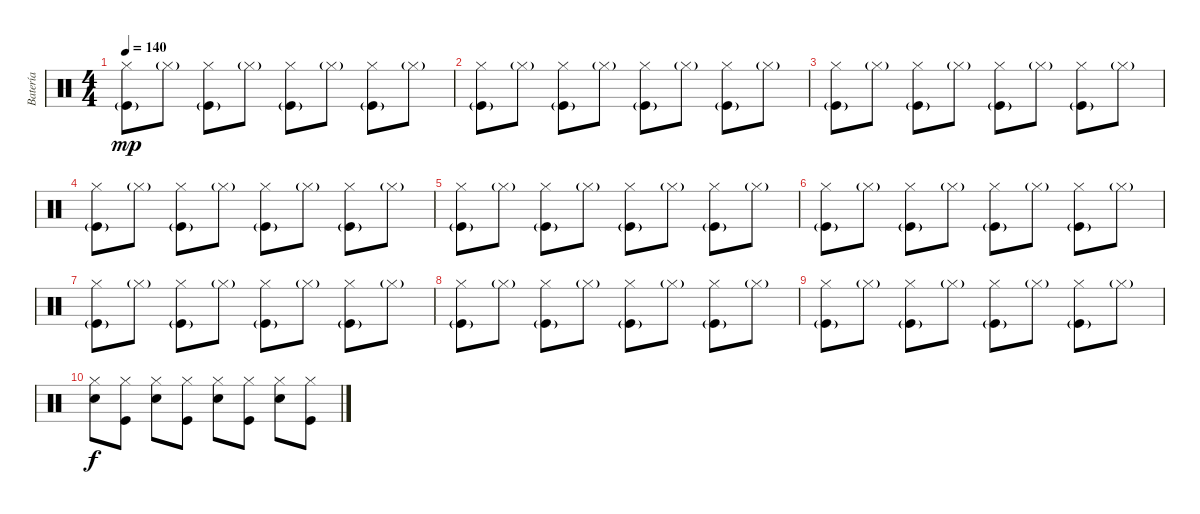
\track ("Batería" "Batería") {instrument percussion}
\staff {score}
\articulation defaults
\ts (4 4)
\tempo 140
\clef neutral
\ks c
("Hi-Hat (closed)" "Kick (hit)"{g}).8{dy mp} "Hi-Hat (closed)"{g}.8 ("Hi-Hat (closed)" "Kick (hit)"{g}).8 "Hi-Hat (closed)"{g}.8 ("Hi-Hat (closed)" "Kick (hit)"{g}).8 "Hi-Hat (closed)"{g}.8 ("Hi-Hat (closed)" "Kick (hit)"{g}).8 "Hi-Hat (closed)"{g}.8 |
("Hi-Hat (closed)" "Kick (hit)"{g}).8 "Hi-Hat (closed)"{g}.8 ("Hi-Hat (closed)" "Kick (hit)"{g}).8 "Hi-Hat (closed)"{g}.8 ("Hi-Hat (closed)" "Kick (hit)"{g}).8 "Hi-Hat (closed)"{g}.8 ("Hi-Hat (closed)" "Kick (hit)"{g}).8 "Hi-Hat (closed)"{g}.8 |
("Hi-Hat (closed)" "Kick (hit)"{g}).8 "Hi-Hat (closed)"{g}.8 ("Hi-Hat (closed)" "Kick (hit)"{g}).8 "Hi-Hat (closed)"{g}.8 ("Hi-Hat (closed)" "Kick (hit)"{g}).8 "Hi-Hat (closed)"{g}.8 ("Hi-Hat (closed)" "Kick (hit)"{g}).8 "Hi-Hat (closed)"{g}.8 |
("Hi-Hat (closed)" "Kick (hit)"{g}).8 "Hi-Hat (closed)"{g}.8 ("Hi-Hat (closed)" "Kick (hit)"{g}).8 "Hi-Hat (closed)"{g}.8 ("Hi-Hat (closed)" "Kick (hit)"{g}).8 "Hi-Hat (closed)"{g}.8 ("Hi-Hat (closed)" "Kick (hit)"{g}).8 "Hi-Hat (closed)"{g}.8 |
("Hi-Hat (closed)" "Kick (hit)"{g}).8 "Hi-Hat (closed)"{g}.8 ("Hi-Hat (closed)" "Kick (hit)"{g}).8 "Hi-Hat (closed)"{g}.8 ("Hi-Hat (closed)" "Kick (hit)"{g}).8 "Hi-Hat (closed)"{g}.8 ("Hi-Hat (closed)" "Kick (hit)"{g}).8 "Hi-Hat (closed)"{g}.8 |
("Hi-Hat (closed)" "Kick (hit)"{g}).8 "Hi-Hat (closed)"{g}.8 ("Hi-Hat (closed)" "Kick (hit)"{g}).8 "Hi-Hat (closed)"{g}.8 ("Hi-Hat (closed)" "Kick (hit)"{g}).8 "Hi-Hat (closed)"{g}.8 ("Hi-Hat (closed)" "Kick (hit)"{g}).8 "Hi-Hat (closed)"{g}.8 |
("Hi-Hat (closed)" "Kick (hit)"{g}).8 "Hi-Hat (closed)"{g}.8 ("Hi-Hat (closed)" "Kick (hit)"{g}).8 "Hi-Hat (closed)"{g}.8 ("Hi-Hat (closed)" "Kick (hit)"{g}).8 "Hi-Hat (closed)"{g}.8 ("Hi-Hat (closed)" "Kick (hit)"{g}).8 "Hi-Hat (closed)"{g}.8 |
("Hi-Hat (closed)" "Kick (hit)"{g}).8 "Hi-Hat (closed)"{g}.8 ("Hi-Hat (closed)" "Kick (hit)"{g}).8 "Hi-Hat (closed)"{g}.8 ("Hi-Hat (closed)" "Kick (hit)"{g}).8 "Hi-Hat (closed)"{g}.8 ("Hi-Hat (closed)" "Kick (hit)"{g}).8 "Hi-Hat (closed)"{g}.8 |
("Hi-Hat (closed)" "Kick (hit)"{g}).8 "Hi-Hat (closed)"{g}.8 ("Hi-Hat (closed)" "Kick (hit)"{g}).8 "Hi-Hat (closed)"{g}.8 ("Hi-Hat (closed)" "Kick (hit)"{g}).8 "Hi-Hat (closed)"{g}.8 ("Hi-Hat (closed)" "Kick (hit)"{g}).8 "Hi-Hat (closed)"{g}.8 |
("Hi-Hat (closed)" "Electric Snare (hit)").8{dy f} ("Hi-Hat (closed)" "Kick (hit)").8 ("Hi-Hat (closed)" "Electric Snare (hit)").8 ("Hi-Hat (closed)" "Kick (hit)").8 ("Hi-Hat (closed)" "Electric Snare (hit)").8 ("Hi-Hat (closed)" "Kick (hit)").8 ("Hi-Hat (closed)" "Electric Snare (hit)").8 ("Hi-Hat (closed)" "Kick (hit)").8
